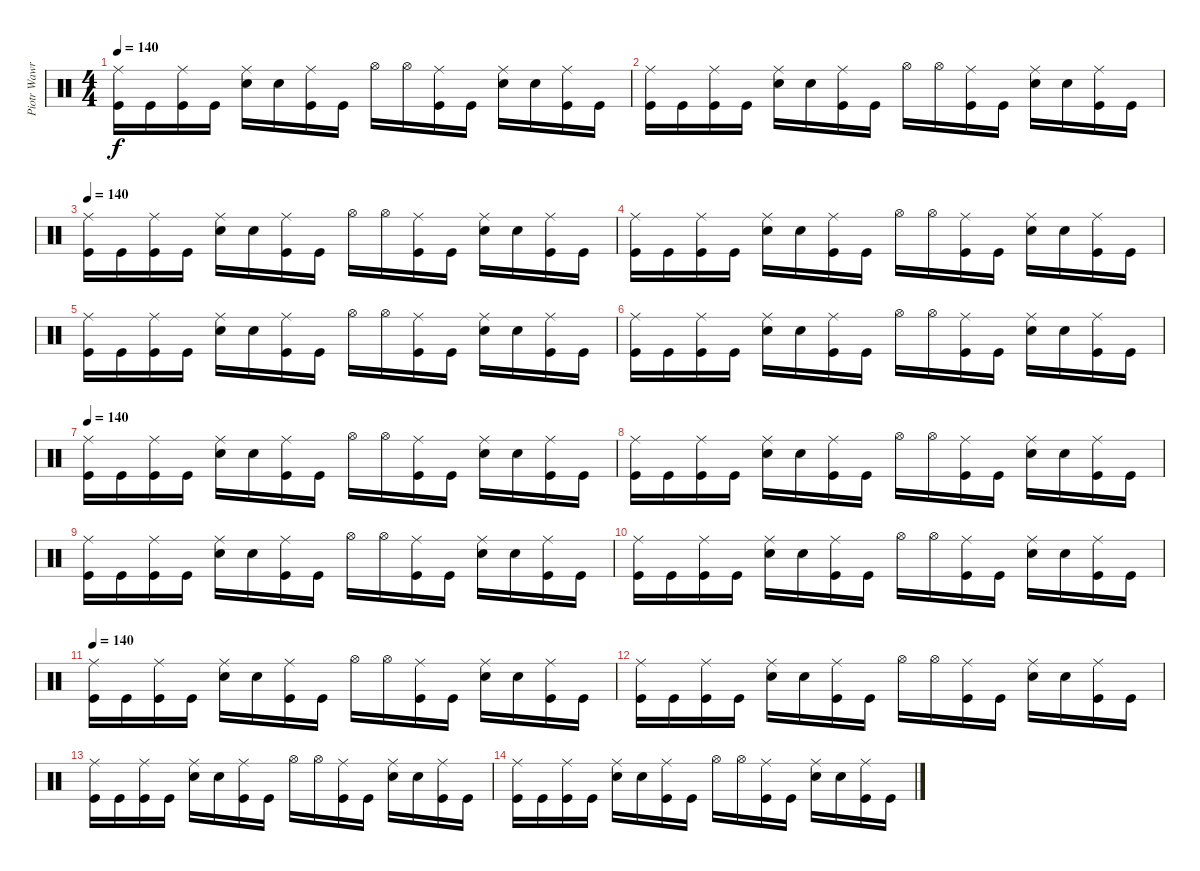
\track ("Piotr Wawrzeniunk (drums)" "Piotr Wawr") {instrument percussion}
\staff {score}
\articulation defaults
\ts (4 4)
\tempo 140
\clef neutral
\ks c
("Kick (hit)" "Ride (middle)").16{dy f} "Kick (hit)".16 ("Kick (hit)" "Ride (middle)").16 "Kick (hit)".16 ("Electric Snare (hit)" "Ride (middle)").16 "Electric Snare (hit)".16 ("Kick (hit)" "Ride (middle)").16 "Kick (hit)".16 "Hi-Hat (open)".16 "Hi-Hat (open)".16 ("Kick (hit)" "Ride (middle)").16 "Kick (hit)".16 ("Electric Snare (hit)" "Ride (middle)").16 "Electric Snare (hit)".16 ("Kick (hit)" "Ride (middle)").16 "Kick (hit)".16 |
("Kick (hit)" "Ride (middle)").16 "Kick (hit)".16 ("Kick (hit)" "Ride (middle)").16 "Kick (hit)".16 ("Electric Snare (hit)" "Ride (middle)").16 "Electric Snare (hit)".16 ("Kick (hit)" "Ride (middle)").16 "Kick (hit)".16 "Hi-Hat (open)".16 "Hi-Hat (open)".16 ("Kick (hit)" "Ride (middle)").16 "Kick (hit)".16 ("Electric Snare (hit)" "Ride (middle)").16 "Electric Snare (hit)".16 ("Kick (hit)" "Ride (middle)").16 "Kick (hit)".16 |
\tempo 140
("Kick (hit)" "Ride (middle)").16 "Kick (hit)".16 ("Kick (hit)" "Ride (middle)").16 "Kick (hit)".16 ("Electric Snare (hit)" "Ride (middle)").16 "Electric Snare (hit)".16 ("Kick (hit)" "Ride (middle)").16 "Kick (hit)".16 "Hi-Hat (open)".16 "Hi-Hat (open)".16 ("Kick (hit)" "Ride (middle)").16 "Kick (hit)".16 ("Electric Snare (hit)" "Ride (middle)").16 "Electric Snare (hit)".16 ("Kick (hit)" "Ride (middle)").16 "Kick (hit)".16 |
("Kick (hit)" "Ride (middle)").16 "Kick (hit)".16 ("Kick (hit)" "Ride (middle)").16 "Kick (hit)".16 ("Electric Snare (hit)" "Ride (middle)").16 "Electric Snare (hit)".16 ("Kick (hit)" "Ride (middle)").16 "Kick (hit)".16 "Hi-Hat (open)".16 "Hi-Hat (open)".16 ("Kick (hit)" "Ride (middle)").16 "Kick (hit)".16 ("Electric Snare (hit)" "Ride (middle)").16 "Electric Snare (hit)".16 ("Kick (hit)" "Ride (middle)").16 "Kick (hit)".16 |
("Kick (hit)" "Ride (middle)").16 "Kick (hit)".16 ("Kick (hit)" "Ride (middle)").16 "Kick (hit)".16 ("Electric Snare (hit)" "Ride (middle)").16 "Electric Snare (hit)".16 ("Kick (hit)" "Ride (middle)").16 "Kick (hit)".16 "Hi-Hat (open)".16 "Hi-Hat (open)".16 ("Kick (hit)" "Ride (middle)").16 "Kick (hit)".16 ("Electric Snare (hit)" "Ride (middle)").16 "Electric Snare (hit)".16 ("Kick (hit)" "Ride (middle)").16 "Kick (hit)".16 |
("Kick (hit)" "Ride (middle)").16 "Kick (hit)".16 ("Kick (hit)" "Ride (middle)").16 "Kick (hit)".16 ("Electric Snare (hit)" "Ride (middle)").16 "Electric Snare (hit)".16 ("Kick (hit)" "Ride (middle)").16 "Kick (hit)".16 "Hi-Hat (open)".16 "Hi-Hat (open)".16 ("Kick (hit)" "Ride (middle)").16 "Kick (hit)".16 ("Electric Snare (hit)" "Ride (middle)").16 "Electric Snare (hit)".16 ("Kick (hit)" "Ride (middle)").16 "Kick (hit)".16 |
\tempo 140
("Kick (hit)" "Ride (middle)").16 "Kick (hit)".16 ("Kick (hit)" "Ride (middle)").16 "Kick (hit)".16 ("Electric Snare (hit)" "Ride (middle)").16 "Electric Snare (hit)".16 ("Kick (hit)" "Ride (middle)").16 "Kick (hit)".16 "Hi-Hat (open)".16 "Hi-Hat (open)".16 ("Kick (hit)" "Ride (middle)").16 "Kick (hit)".16 ("Electric Snare (hit)" "Ride (middle)").16 "Electric Snare (hit)".16 ("Kick (hit)" "Ride (middle)").16 "Kick (hit)".16 |
("Kick (hit)" "Ride (middle)").16 "Kick (hit)".16 ("Kick (hit)" "Ride (middle)").16 "Kick (hit)".16 ("Electric Snare (hit)" "Ride (middle)").16 "Electric Snare (hit)".16 ("Kick (hit)" "Ride (middle)").16 "Kick (hit)".16 "Hi-Hat (open)".16 "Hi-Hat (open)".16 ("Kick (hit)" "Ride (middle)").16 "Kick (hit)".16 ("Electric Snare (hit)" "Ride (middle)").16 "Electric Snare (hit)".16 ("Kick (hit)" "Ride (middle)").16 "Kick (hit)".16 |
("Kick (hit)" "Ride (middle)").16 "Kick (hit)".16 ("Kick (hit)" "Ride (middle)").16 "Kick (hit)".16 ("Electric Snare (hit)" "Ride (middle)").16 "Electric Snare (hit)".16 ("Kick (hit)" "Ride (middle)").16 "Kick (hit)".16 "Hi-Hat (open)".16 "Hi-Hat (open)".16 ("Kick (hit)" "Ride (middle)").16 "Kick (hit)".16 ("Electric Snare (hit)" "Ride (middle)").16 "Electric Snare (hit)".16 ("Kick (hit)" "Ride (middle)").16 "Kick (hit)".16 |
("Kick (hit)" "Ride (middle)").16 "Kick (hit)".16 ("Kick (hit)" "Ride (middle)").16 "Kick (hit)".16 ("Electric Snare (hit)" "Ride (middle)").16 "Electric Snare (hit)".16 ("Kick (hit)" "Ride (middle)").16 "Kick (hit)".16 "Hi-Hat (open)".16 "Hi-Hat (open)".16 ("Kick (hit)" "Ride (middle)").16 "Kick (hit)".16 ("Electric Snare (hit)" "Ride (middle)").16 "Electric Snare (hit)".16 ("Kick (hit)" "Ride (middle)").16 "Kick (hit)".16 |
\tempo 140
("Kick (hit)" "Ride (middle)").16 "Kick (hit)".16 ("Kick (hit)" "Ride (middle)").16 "Kick (hit)".16 ("Electric Snare (hit)" "Ride (middle)").16 "Electric Snare (hit)".16 ("Kick (hit)" "Ride (middle)").16 "Kick (hit)".16 "Hi-Hat (open)".16 "Hi-Hat (open)".16 ("Kick (hit)" "Ride (middle)").16 "Kick (hit)".16 ("Electric Snare (hit)" "Ride (middle)").16 "Electric Snare (hit)".16 ("Kick (hit)" "Ride (middle)").16 "Kick (hit)".16 |
("Kick (hit)" "Ride (middle)").16 "Kick (hit)".16 ("Kick (hit)" "Ride (middle)").16 "Kick (hit)".16 ("Electric Snare (hit)" "Ride (middle)").16 "Electric Snare (hit)".16 ("Kick (hit)" "Ride (middle)").16 "Kick (hit)".16 "Hi-Hat (open)".16 "Hi-Hat (open)".16 ("Kick (hit)" "Ride (middle)").16 "Kick (hit)".16 ("Electric Snare (hit)" "Ride (middle)").16 "Electric Snare (hit)".16 ("Kick (hit)" "Ride (middle)").16 "Kick (hit)".16 |
("Kick (hit)" "Ride (middle)").16 "Kick (hit)".16 ("Kick (hit)" "Ride (middle)").16 "Kick (hit)".16 ("Electric Snare (hit)" "Ride (middle)").16 "Electric Snare (hit)".16 ("Kick (hit)" "Ride (middle)").16 "Kick (hit)".16 "Hi-Hat (open)".16 "Hi-Hat (open)".16 ("Kick (hit)" "Ride (middle)").16 "Kick (hit)".16 ("Electric Snare (hit)" "Ride (middle)").16 "Electric Snare (hit)".16 ("Kick (hit)" "Ride (middle)").16 "Kick (hit)".16 |
("Kick (hit)" "Ride (middle)").16 "Kick (hit)".16 ("Kick (hit)" "Ride (middle)").16 "Kick (hit)".16 ("Electric Snare (hit)" "Ride (middle)").16 "Electric Snare (hit)".16 ("Kick (hit)" "Ride (middle)").16 "Kick (hit)".16 "Hi-Hat (open)".16 "Hi-Hat (open)".16 ("Kick (hit)" "Ride (middle)").16 "Kick (hit)".16 ("Electric Snare (hit)" "Ride (middle)").16 "Electric Snare (hit)".16 ("Kick (hit)" "Ride (middle)").16 "Kick (hit)".16
